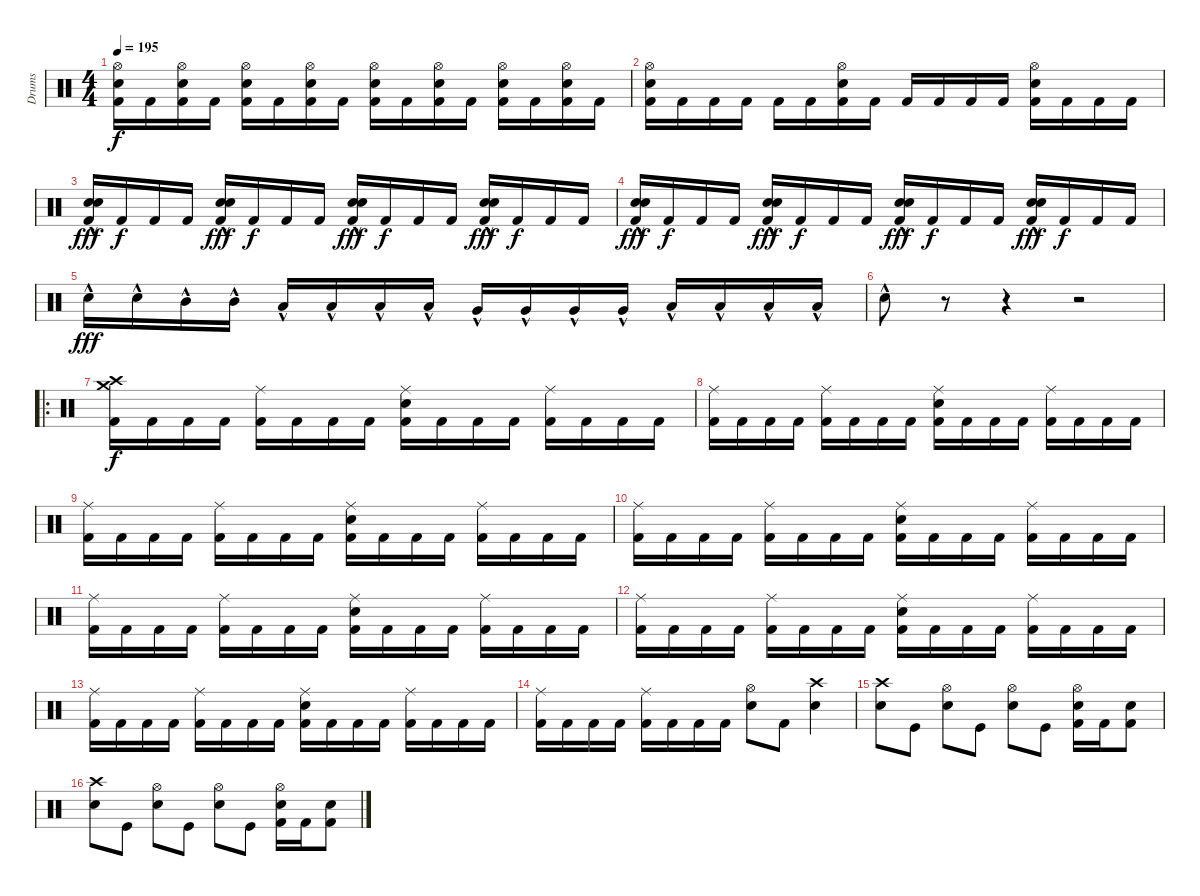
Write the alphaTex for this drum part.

\track ("Drums" "Drums") {instrument percussion}
\staff {score}
\articulation defaults
\ts (4 4)
\tempo 195
\clef neutral
\ks c
("Hi-Hat (open)" "Kick (hit) 2" "Electric Snare (hit)").16{dy f} "Kick (hit) 2".16 ("Hi-Hat (open)" "Kick (hit) 2" "Electric Snare (hit)").16 "Kick (hit) 2".16 ("Hi-Hat (open)" "Kick (hit) 2" "Electric Snare (hit)").16 "Kick (hit) 2".16 ("Hi-Hat (open)" "Kick (hit) 2" "Electric Snare (hit)").16 "Kick (hit) 2".16 ("Hi-Hat (open)" "Kick (hit) 2" "Electric Snare (hit)").16 "Kick (hit) 2".16 ("Hi-Hat (open)" "Kick (hit) 2" "Electric Snare (hit)").16 "Kick (hit) 2".16 ("Hi-Hat (open)" "Kick (hit) 2" "Electric Snare (hit)").16 "Kick (hit) 2".16 ("Hi-Hat (open)" "Kick (hit) 2" "Electric Snare (hit)").16 "Kick (hit) 2".16 |
("Hi-Hat (open)" "Electric Snare (hit)" "Kick (hit) 2").16 "Kick (hit) 2".16 "Kick (hit) 2".16 "Kick (hit) 2".16 "Kick (hit) 2".16 "Kick (hit) 2".16 ("Hi-Hat (open)" "Electric Snare (hit)" "Kick (hit) 2").16 "Kick (hit) 2".16 "Kick (hit) 2".16 "Kick (hit) 2".16 "Kick (hit) 2".16 "Kick (hit) 2".16 ("Hi-Hat (open)" "Electric Snare (hit)" "Kick (hit) 2").16 "Kick (hit) 2".16 "Kick (hit) 2".16 "Kick (hit) 2".16 |
("Electric Snare (hit)"{hac} "Electric Snare (hit)"{hac} "Kick (hit) 2").16{dy fff} "Kick (hit) 2".16{dy f} "Kick (hit) 2".16 "Kick (hit) 2".16 ("Electric Snare (hit)"{hac} "Electric Snare (hit)"{hac} "Kick (hit) 2").16{dy fff} "Kick (hit) 2".16{dy f} "Kick (hit) 2".16 "Kick (hit) 2".16 ("Electric Snare (hit)"{hac} "Electric Snare (hit)"{hac} "Kick (hit) 2").16{dy fff} "Kick (hit) 2".16{dy f} "Kick (hit) 2".16 "Kick (hit) 2".16 ("Electric Snare (hit)"{hac} "Electric Snare (hit)"{hac} "Kick (hit) 2").16{dy fff} "Kick (hit) 2".16{dy f} "Kick (hit) 2".16 "Kick (hit) 2".16 |
("Electric Snare (hit)"{hac} "Electric Snare (hit)"{hac} "Kick (hit) 2").16{dy fff} "Kick (hit) 2".16{dy f} "Kick (hit) 2".16 "Kick (hit) 2".16 ("Electric Snare (hit)"{hac} "Electric Snare (hit)"{hac} "Kick (hit) 2").16{dy fff} "Kick (hit) 2".16{dy f} "Kick (hit) 2".16 "Kick (hit) 2".16 ("Electric Snare (hit)"{hac} "Electric Snare (hit)"{hac} "Kick (hit) 2").16{dy fff} "Kick (hit) 2".16{dy f} "Kick (hit) 2".16 "Kick (hit) 2".16 ("Electric Snare (hit)"{hac} "Electric Snare (hit)"{hac} "Kick (hit) 2").16{dy fff} "Kick (hit) 2".16{dy f} "Kick (hit) 2".16 "Kick (hit) 2".16 |
"Electric Snare (hit)"{hac}.16{dy fff} "Electric Snare (hit)"{hac}.16 "Mid Tom (hit)"{hac}.16 "Mid Tom (hit)"{hac}.16 "Low Tom (hit)"{hac}.16 "Low Tom (hit)"{hac}.16 "Low Tom (hit)"{hac}.16 "Low Tom (hit)"{hac}.16 "Very Low Tom (hit)"{hac}.16 "Very Low Tom (hit)"{hac}.16 "Very Low Tom (hit)"{hac}.16 "Very Low Tom (hit)"{hac}.16 "Low Floor Tom (hit)"{hac}.16 "Low Floor Tom (hit)"{hac}.16 "Low Floor Tom (hit)"{hac}.16 "Low Floor Tom (hit)"{hac}.16 |
"Electric Snare (hit)"{hac}.8 r.8 r.4 r.2 |
\ro
("Crash high (hit)" "Crash medium (hit)" "Kick (hit) 2").16{dy f} "Kick (hit) 2".16 "Kick (hit) 2".16 "Kick (hit) 2".16 ("Ride (middle)" "Kick (hit) 2").16 "Kick (hit) 2".16 "Kick (hit) 2".16 "Kick (hit) 2".16 ("Ride (middle)" "Electric Snare (hit)" "Kick (hit) 2").16 "Kick (hit) 2".16 "Kick (hit) 2".16 "Kick (hit) 2".16 ("Ride (middle)" "Kick (hit) 2").16 "Kick (hit) 2".16 "Kick (hit) 2".16 "Kick (hit) 2".16 |
("Ride (middle)" "Kick (hit) 2").16 "Kick (hit) 2".16 "Kick (hit) 2".16 "Kick (hit) 2".16 ("Ride (middle)" "Kick (hit) 2").16 "Kick (hit) 2".16 "Kick (hit) 2".16 "Kick (hit) 2".16 ("Ride (middle)" "Electric Snare (hit)" "Kick (hit) 2").16 "Kick (hit) 2".16 "Kick (hit) 2".16 "Kick (hit) 2".16 ("Ride (middle)" "Kick (hit) 2").16 "Kick (hit) 2".16 "Kick (hit) 2".16 "Kick (hit) 2".16 |
("Ride (middle)" "Kick (hit) 2").16 "Kick (hit) 2".16 "Kick (hit) 2".16 "Kick (hit) 2".16 ("Ride (middle)" "Kick (hit) 2").16 "Kick (hit) 2".16 "Kick (hit) 2".16 "Kick (hit) 2".16 ("Ride (middle)" "Electric Snare (hit)" "Kick (hit) 2").16 "Kick (hit) 2".16 "Kick (hit) 2".16 "Kick (hit) 2".16 ("Ride (middle)" "Kick (hit) 2").16 "Kick (hit) 2".16 "Kick (hit) 2".16 "Kick (hit) 2".16 |
("Ride (middle)" "Kick (hit) 2").16 "Kick (hit) 2".16 "Kick (hit) 2".16 "Kick (hit) 2".16 ("Ride (middle)" "Kick (hit) 2").16 "Kick (hit) 2".16 "Kick (hit) 2".16 "Kick (hit) 2".16 ("Ride (middle)" "Electric Snare (hit)" "Kick (hit) 2").16 "Kick (hit) 2".16 "Kick (hit) 2".16 "Kick (hit) 2".16 ("Ride (middle)" "Kick (hit) 2").16 "Kick (hit) 2".16 "Kick (hit) 2".16 "Kick (hit) 2".16 |
("Ride (middle)" "Kick (hit) 2").16 "Kick (hit) 2".16 "Kick (hit) 2".16 "Kick (hit) 2".16 ("Ride (middle)" "Kick (hit) 2").16 "Kick (hit) 2".16 "Kick (hit) 2".16 "Kick (hit) 2".16 ("Ride (middle)" "Electric Snare (hit)" "Kick (hit) 2").16 "Kick (hit) 2".16 "Kick (hit) 2".16 "Kick (hit) 2".16 ("Ride (middle)" "Kick (hit) 2").16 "Kick (hit) 2".16 "Kick (hit) 2".16 "Kick (hit) 2".16 |
("Ride (middle)" "Kick (hit) 2").16 "Kick (hit) 2".16 "Kick (hit) 2".16 "Kick (hit) 2".16 ("Ride (middle)" "Kick (hit) 2").16 "Kick (hit) 2".16 "Kick (hit) 2".16 "Kick (hit) 2".16 ("Ride (middle)" "Electric Snare (hit)" "Kick (hit) 2").16 "Kick (hit) 2".16 "Kick (hit) 2".16 "Kick (hit) 2".16 ("Ride (middle)" "Kick (hit) 2").16 "Kick (hit) 2".16 "Kick (hit) 2".16 "Kick (hit) 2".16 |
("Ride (middle)" "Kick (hit) 2").16 "Kick (hit) 2".16 "Kick (hit) 2".16 "Kick (hit) 2".16 ("Ride (middle)" "Kick (hit) 2").16 "Kick (hit) 2".16 "Kick (hit) 2".16 "Kick (hit) 2".16 ("Ride (middle)" "Electric Snare (hit)" "Kick (hit) 2").16 "Kick (hit) 2".16 "Kick (hit) 2".16 "Kick (hit) 2".16 ("Ride (middle)" "Kick (hit) 2").16 "Kick (hit) 2".16 "Kick (hit) 2".16 "Kick (hit) 2".16 |
("Ride (middle)" "Kick (hit) 2").16 "Kick (hit) 2".16 "Kick (hit) 2".16 "Kick (hit) 2".16 ("Ride (middle)" "Kick (hit) 2").16 "Kick (hit) 2".16 "Kick (hit) 2".16 "Kick (hit) 2".16 ("Hi-Hat (open)" "Electric Snare (hit)").8 "Kick (hit) 2".8 ("Crash high (hit)" "Electric Snare (hit)").4 |
("Crash high (hit)" "Electric Snare (hit)").8 "Kick (hit)".8 ("Electric Snare (hit)" "Hi-Hat (open)").8 "Kick (hit)".8 ("Electric Snare (hit)" "Hi-Hat (open)").8 "Kick (hit)".8 ("Electric Snare (hit)" "Kick (hit) 2" "Hi-Hat (open)").16 "Kick (hit) 2".16 ("Electric Snare (hit)" "Kick (hit) 2").8 |
("Crash high (hit)" "Electric Snare (hit)").8 "Kick (hit)".8 ("Electric Snare (hit)" "Hi-Hat (open)").8 "Kick (hit)".8 ("Electric Snare (hit)" "Hi-Hat (open)").8 "Kick (hit)".8 ("Electric Snare (hit)" "Kick (hit) 2" "Hi-Hat (open)").16 "Kick (hit) 2".16 ("Electric Snare (hit)" "Kick (hit) 2").8
